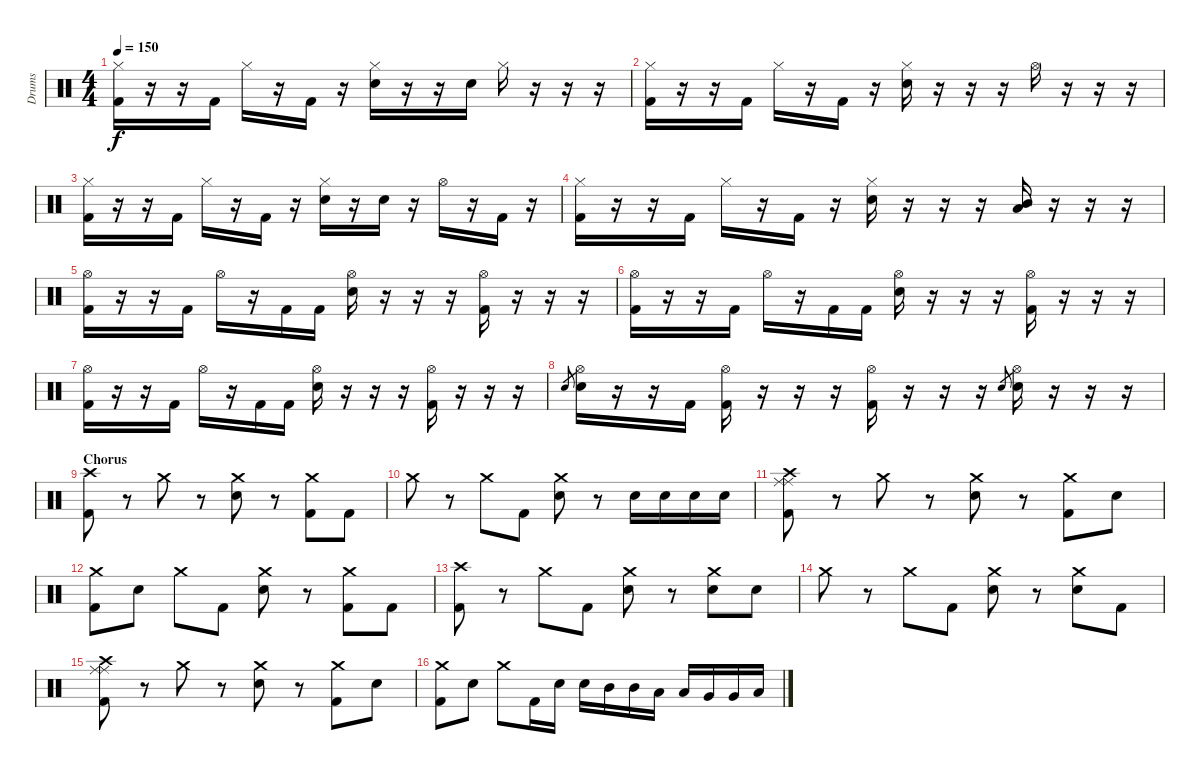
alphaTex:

\track ("Drums" "Drums") {instrument percussion}
\staff {score}
\articulation defaults
\ts (4 4)
\tempo 150
\clef neutral
\ks c
("Hi-Hat (closed)" "Kick (hit) 2").16{dy f} r.16 r.16 "Kick (hit) 2".16 "Hi-Hat (closed)".16 r.16 "Kick (hit) 2".16 r.16 ("Hi-Hat (closed)" "Electric Snare (hit)").16 r.16 r.16 "Electric Snare (hit)".16 "Hi-Hat (closed)".16 r.16 r.16 r.16 |
("Hi-Hat (closed)" "Kick (hit) 2").16 r.16 r.16 "Kick (hit) 2".16 "Hi-Hat (closed)".16 r.16 "Kick (hit) 2".16 r.16 ("Hi-Hat (closed)" "Electric Snare (hit)").16 r.16 r.16 r.16 "Hi-Hat (open)".16 r.16 r.16 r.16 |
("Hi-Hat (closed)" "Kick (hit) 2").16 r.16 r.16 "Kick (hit) 2".16 "Hi-Hat (closed)".16 r.16 "Kick (hit) 2".16 r.16 ("Hi-Hat (closed)" "Electric Snare (hit)").16 r.16 "Electric Snare (hit)".16 r.16 "Hi-Hat (open)".16 r.16 "Kick (hit) 2".16 r.16 |
("Hi-Hat (closed)" "Kick (hit) 2").16 r.16 r.16 "Kick (hit) 2".16 "Hi-Hat (closed)".16 r.16 "Kick (hit) 2".16 r.16 ("Hi-Hat (closed)" "Electric Snare (hit)").16 r.16 r.16 r.16 ("Mid Tom (hit)" "Low Floor Tom (hit)").16 r.16 r.16 r.16 |
("Hi-Hat (open)" "Kick (hit) 2").16 r.16 r.16 "Kick (hit) 2".16 "Hi-Hat (open)".16 r.16 "Kick (hit) 2".16 "Kick (hit) 2".16 ("Hi-Hat (open)" "Electric Snare (hit)").16 r.16 r.16 r.16 ("Hi-Hat (open)" "Kick (hit) 2").16 r.16 r.16 r.16 |
("Hi-Hat (open)" "Kick (hit) 2").16 r.16 r.16 "Kick (hit) 2".16 "Hi-Hat (open)".16 r.16 "Kick (hit) 2".16 "Kick (hit) 2".16 ("Hi-Hat (open)" "Electric Snare (hit)").16 r.16 r.16 r.16 ("Hi-Hat (open)" "Kick (hit) 2").16 r.16 r.16 r.16 |
("Hi-Hat (open)" "Kick (hit) 2").16 r.16 r.16 "Kick (hit) 2".16 "Hi-Hat (open)".16 r.16 "Kick (hit) 2".16 "Kick (hit) 2".16 ("Hi-Hat (open)" "Electric Snare (hit)").16 r.16 r.16 r.16 ("Hi-Hat (open)" "Kick (hit) 2").16 r.16 r.16 r.16 |
"Electric Snare (hit)".8{gr} ("Hi-Hat (open)" "Electric Snare (hit)").16 r.16 r.16 "Kick (hit) 2".16 ("Hi-Hat (open)" "Kick (hit) 2").16 r.16 r.16 r.16 ("Hi-Hat (open)" "Kick (hit) 2").16 r.16 r.16 r.16 "Electric Snare (hit)".8{gr} ("Hi-Hat (open)" "Electric Snare (hit)").16 r.16 r.16 r.16 |
\section ("" "Chorus")
("Crash high (hit)" "Kick (hit) 2").8 r.8 "Crash medium (hit)".8 r.8 ("Crash medium (hit)" "Electric Snare (hit)").8 r.8 ("Crash medium (hit)" "Kick (hit) 2").8 "Kick (hit) 2".8 |
"Crash medium (hit)".8 r.8 "Crash medium (hit)".8 "Kick (hit) 2".8 ("Crash medium (hit)" "Electric Snare (hit)").8 r.8 "Electric Snare (hit)".16 "Electric Snare (hit)".16 "Electric Snare (hit)".16 "Electric Snare (hit)".16 |
("Crash high (hit)" "Ride (middle)" "Ride (middle)" "Kick (hit) 2").8 r.8 "Crash medium (hit)".8 r.8 ("Crash medium (hit)" "Electric Snare (hit)").8 r.8 ("Crash medium (hit)" "Kick (hit) 2").8 "Electric Snare (hit)".8 |
("Crash medium (hit)" "Kick (hit) 2").8 "Electric Snare (hit)".8 "Crash medium (hit)".8 "Kick (hit) 2".8 ("Crash medium (hit)" "Electric Snare (hit)").8 r.8 ("Crash medium (hit)" "Kick (hit) 2").8 "Kick (hit) 2".8 |
("Crash high (hit)" "Kick (hit) 2").8 r.8 "Crash medium (hit)".8 "Kick (hit) 2".8 ("Crash medium (hit)" "Electric Snare (hit)").8 r.8 ("Crash medium (hit)" "Electric Snare (hit)").8 "Electric Snare (hit)".8 |
"Crash medium (hit)".8 r.8 "Crash medium (hit)".8 "Kick (hit) 2".8 ("Crash medium (hit)" "Electric Snare (hit)").8 r.8 ("Crash medium (hit)" "Electric Snare (hit)").8 "Kick (hit) 2".8 |
("Crash high (hit)" "Ride (middle)" "Ride (middle)" "Kick (hit) 2").8 r.8 "Crash medium (hit)".8 r.8 ("Crash medium (hit)" "Electric Snare (hit)").8 r.8 ("Crash medium (hit)" "Kick (hit) 2").8 "Electric Snare (hit)".8 |
("Crash medium (hit)" "Kick (hit) 2").8 "Electric Snare (hit)".8 "Crash medium (hit)".8 "Kick (hit) 2".16 "Electric Snare (hit)".16 "Electric Snare (hit)".16 "Mid Tom (hit)".16 "Mid Tom (hit)".16 "Low Tom (hit)".16 "Low Tom (hit)".16 "Very Low Tom (hit)".16 "Very Low Tom (hit)".16 "Low Floor Tom (hit)".16
